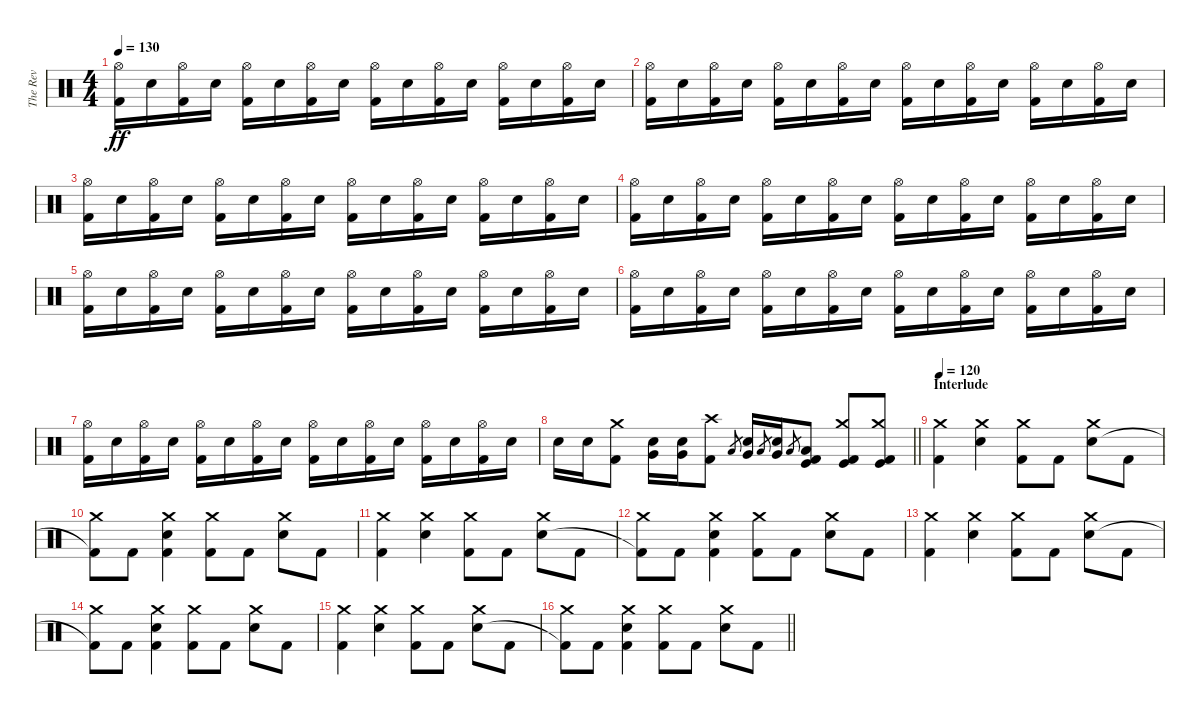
\track ("The Rev" "The Rev") {instrument percussion}
\staff {score}
\articulation defaults
\ts (4 4)
\tempo 130
\clef neutral
\ks c
("Hi-Hat (open)" "Kick (hit) 2").16{dy ff} "Electric Snare (hit)".16 ("Hi-Hat (open)" "Kick (hit) 2").16 "Electric Snare (hit)".16 ("Hi-Hat (open)" "Kick (hit) 2").16 "Electric Snare (hit)".16 ("Hi-Hat (open)" "Kick (hit) 2").16 "Electric Snare (hit)".16 ("Hi-Hat (open)" "Kick (hit) 2").16 "Electric Snare (hit)".16 ("Hi-Hat (open)" "Kick (hit) 2").16 "Electric Snare (hit)".16 ("Hi-Hat (open)" "Kick (hit) 2").16 "Electric Snare (hit)".16 ("Hi-Hat (open)" "Kick (hit) 2").16 "Electric Snare (hit)".16 |
("Hi-Hat (open)" "Kick (hit) 2").16 "Electric Snare (hit)".16 ("Hi-Hat (open)" "Kick (hit) 2").16 "Electric Snare (hit)".16 ("Hi-Hat (open)" "Kick (hit) 2").16 "Electric Snare (hit)".16 ("Hi-Hat (open)" "Kick (hit) 2").16 "Electric Snare (hit)".16 ("Hi-Hat (open)" "Kick (hit) 2").16 "Electric Snare (hit)".16 ("Hi-Hat (open)" "Kick (hit) 2").16 "Electric Snare (hit)".16 ("Hi-Hat (open)" "Kick (hit) 2").16 "Electric Snare (hit)".16 ("Hi-Hat (open)" "Kick (hit) 2").16 "Electric Snare (hit)".16 |
("Hi-Hat (open)" "Kick (hit) 2").16 "Electric Snare (hit)".16 ("Hi-Hat (open)" "Kick (hit) 2").16 "Electric Snare (hit)".16 ("Hi-Hat (open)" "Kick (hit) 2").16 "Electric Snare (hit)".16 ("Hi-Hat (open)" "Kick (hit) 2").16 "Electric Snare (hit)".16 ("Hi-Hat (open)" "Kick (hit) 2").16 "Electric Snare (hit)".16 ("Hi-Hat (open)" "Kick (hit) 2").16 "Electric Snare (hit)".16 ("Hi-Hat (open)" "Kick (hit) 2").16 "Electric Snare (hit)".16 ("Hi-Hat (open)" "Kick (hit) 2").16 "Electric Snare (hit)".16 |
("Hi-Hat (open)" "Kick (hit) 2").16 "Electric Snare (hit)".16 ("Hi-Hat (open)" "Kick (hit) 2").16 "Electric Snare (hit)".16 ("Hi-Hat (open)" "Kick (hit) 2").16 "Electric Snare (hit)".16 ("Hi-Hat (open)" "Kick (hit) 2").16 "Electric Snare (hit)".16 ("Hi-Hat (open)" "Kick (hit) 2").16 "Electric Snare (hit)".16 ("Hi-Hat (open)" "Kick (hit) 2").16 "Electric Snare (hit)".16 ("Hi-Hat (open)" "Kick (hit) 2").16 "Electric Snare (hit)".16 ("Hi-Hat (open)" "Kick (hit) 2").16 "Electric Snare (hit)".16 |
("Hi-Hat (open)" "Kick (hit) 2").16 "Electric Snare (hit)".16 ("Hi-Hat (open)" "Kick (hit) 2").16 "Electric Snare (hit)".16 ("Hi-Hat (open)" "Kick (hit) 2").16 "Electric Snare (hit)".16 ("Hi-Hat (open)" "Kick (hit) 2").16 "Electric Snare (hit)".16 ("Hi-Hat (open)" "Kick (hit) 2").16 "Electric Snare (hit)".16 ("Hi-Hat (open)" "Kick (hit) 2").16 "Electric Snare (hit)".16 ("Hi-Hat (open)" "Kick (hit) 2").16 "Electric Snare (hit)".16 ("Hi-Hat (open)" "Kick (hit) 2").16 "Electric Snare (hit)".16 |
("Hi-Hat (open)" "Kick (hit) 2").16 "Electric Snare (hit)".16 ("Hi-Hat (open)" "Kick (hit) 2").16 "Electric Snare (hit)".16 ("Hi-Hat (open)" "Kick (hit) 2").16 "Electric Snare (hit)".16 ("Hi-Hat (open)" "Kick (hit) 2").16 "Electric Snare (hit)".16 ("Hi-Hat (open)" "Kick (hit) 2").16 "Electric Snare (hit)".16 ("Hi-Hat (open)" "Kick (hit) 2").16 "Electric Snare (hit)".16 ("Hi-Hat (open)" "Kick (hit) 2").16 "Electric Snare (hit)".16 ("Hi-Hat (open)" "Kick (hit) 2").16 "Electric Snare (hit)".16 |
("Hi-Hat (open)" "Kick (hit) 2").16 "Electric Snare (hit)".16 ("Hi-Hat (open)" "Kick (hit) 2").16 "Electric Snare (hit)".16 ("Hi-Hat (open)" "Kick (hit) 2").16 "Electric Snare (hit)".16 ("Hi-Hat (open)" "Kick (hit) 2").16 "Electric Snare (hit)".16 ("Hi-Hat (open)" "Kick (hit) 2").16 "Electric Snare (hit)".16 ("Hi-Hat (open)" "Kick (hit) 2").16 "Electric Snare (hit)".16 ("Hi-Hat (open)" "Kick (hit) 2").16 "Electric Snare (hit)".16 ("Hi-Hat (open)" "Kick (hit) 2").16 "Electric Snare (hit)".16 |
\barLineRight lightlight "Electric Snare (hit)".16 "Electric Snare (hit)".16
("Crash medium (hit)" "Kick (hit) 2").8 ("Very Low Tom (hit)" "Electric Snare (hit)").16 ("Very Low Tom (hit)" "Electric Snare (hit)").16 ("Crash high (hit)" "Kick (hit) 2").8 "Low Floor Tom (hit)".8{gr} ("Very Low Tom (hit)" "Electric Snare (hit)").16 "Low Floor Tom (hit)".8{gr} ("Very Low Tom (hit)" "Electric Snare (hit)").16 "Low Tom (hit)".8{gr} ("Low Tom (hit)" "Kick (hit)" "Kick (hit) 2").8 ("Crash medium (hit)" "Kick (hit)" "Kick (hit) 2").8 ("Crash medium (hit)" "Kick (hit)" "Kick (hit) 2").8 |
\section ("" "Interlude")
\tempo 120
("Crash medium (hit)" "Kick (hit) 2").4 ("Crash medium (hit)" "Electric Snare (hit)").4 ("Crash medium (hit)" "Kick (hit) 2").8 "Kick (hit) 2".8 ("Crash medium (hit)" "Electric Snare (hit)").8 "Kick (hit) 2".8 |
("Crash medium (hit)" "Kick (hit) 2"{t}).8 "Kick (hit) 2".8 ("Crash medium (hit)" "Electric Snare (hit)" "Kick (hit) 2").4 ("Crash medium (hit)" "Kick (hit) 2").8 "Kick (hit) 2".8 ("Crash medium (hit)" "Electric Snare (hit)").8 "Kick (hit) 2".8 |
("Crash medium (hit)" "Kick (hit) 2").4 ("Crash medium (hit)" "Electric Snare (hit)").4 ("Crash medium (hit)" "Kick (hit) 2").8 "Kick (hit) 2".8 ("Crash medium (hit)" "Electric Snare (hit)").8 "Kick (hit) 2".8 |
("Crash medium (hit)" "Kick (hit) 2"{t}).8 "Kick (hit) 2".8 ("Crash medium (hit)" "Electric Snare (hit)" "Kick (hit) 2").4 ("Crash medium (hit)" "Kick (hit) 2").8 "Kick (hit) 2".8 ("Crash medium (hit)" "Electric Snare (hit)").8 "Kick (hit) 2".8 |
("Crash medium (hit)" "Kick (hit) 2").4 ("Crash medium (hit)" "Electric Snare (hit)").4 ("Crash medium (hit)" "Kick (hit) 2").8 "Kick (hit) 2".8 ("Crash medium (hit)" "Electric Snare (hit)").8 "Kick (hit) 2".8 |
("Crash medium (hit)" "Kick (hit) 2"{t}).8 "Kick (hit) 2".8 ("Crash medium (hit)" "Electric Snare (hit)" "Kick (hit) 2").4 ("Crash medium (hit)" "Kick (hit) 2").8 "Kick (hit) 2".8 ("Crash medium (hit)" "Electric Snare (hit)").8 "Kick (hit) 2".8 |
("Crash medium (hit)" "Kick (hit) 2").4 ("Crash medium (hit)" "Electric Snare (hit)").4 ("Crash medium (hit)" "Kick (hit) 2").8 "Kick (hit) 2".8 ("Crash medium (hit)" "Electric Snare (hit)").8 "Kick (hit) 2".8 |
\barLineRight lightlight
("Crash medium (hit)" "Kick (hit) 2"{t}).8 "Kick (hit) 2".8 ("Crash medium (hit)" "Electric Snare (hit)" "Kick (hit) 2").4 ("Crash medium (hit)" "Kick (hit) 2").8 "Kick (hit) 2".8 ("Crash medium (hit)" "Electric Snare (hit)").8 "Kick (hit) 2".8
